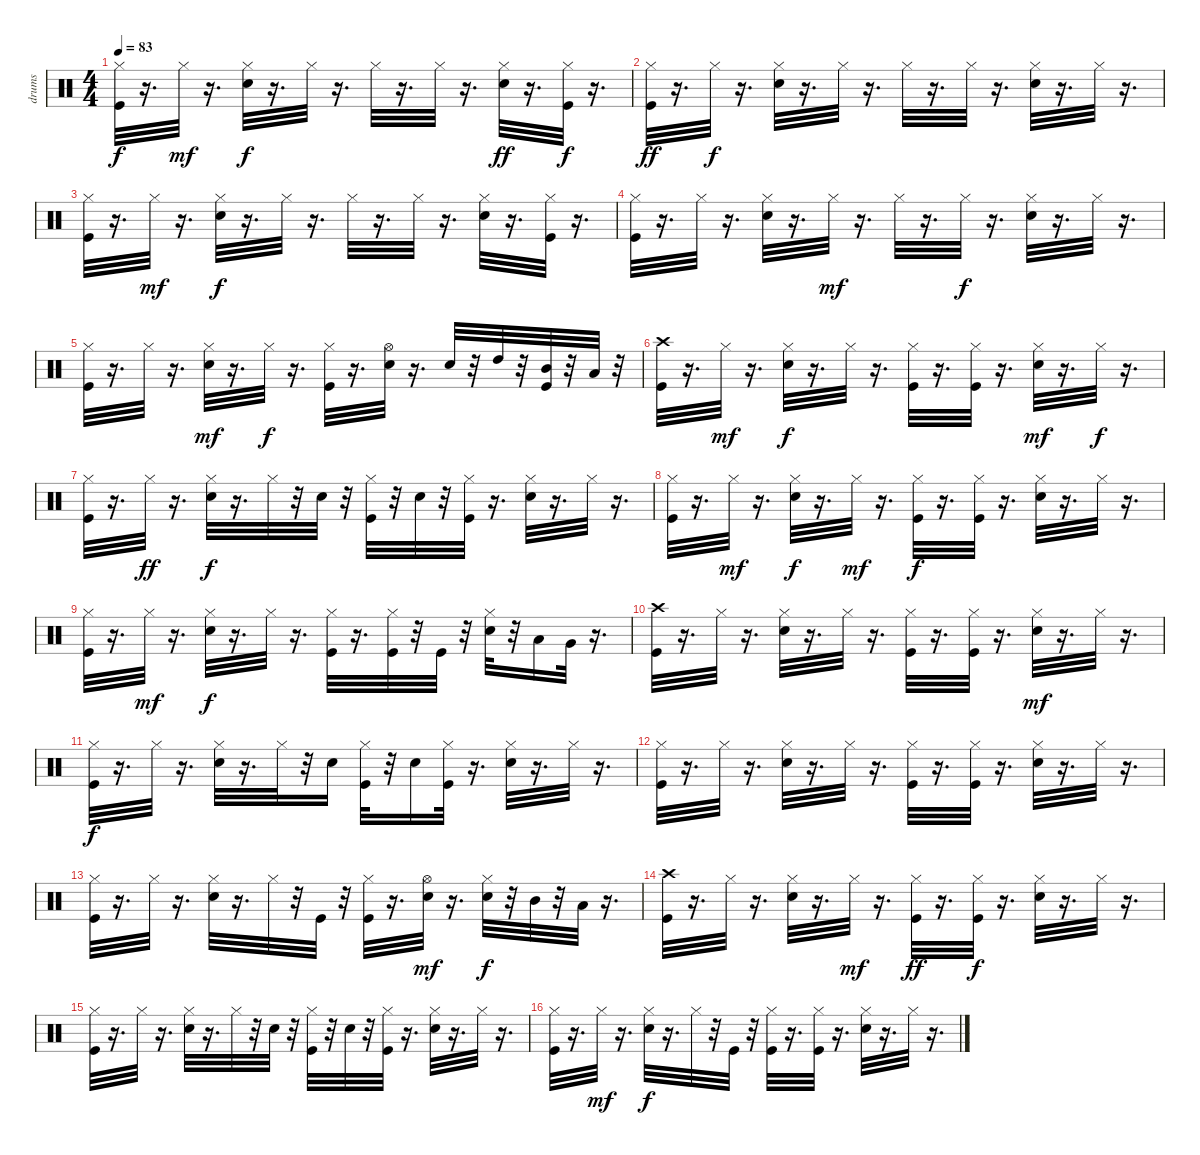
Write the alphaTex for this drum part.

\track ("drums" "drums") {instrument percussion}
\staff {score}
\articulation defaults
\ts (4 4)
\tempo 83
\clef neutral
\ks c
("Hi-Hat (closed)" "Kick (hit)").32{dy f} r.16{d} "Hi-Hat (closed)".32{dy mf} r.16{d} ("Hi-Hat (closed)" "Electric Snare (hit)").32{dy f} r.16{d} "Hi-Hat (closed)".32 r.16{d} "Hi-Hat (closed)".32 r.16{d} "Hi-Hat (closed)".32 r.16{d} ("Hi-Hat (closed)" "Electric Snare (hit)").32{dy ff} r.16{d} ("Kick (hit)" "Hi-Hat (closed)").32{dy f} r.16{d} |
("Hi-Hat (closed)" "Kick (hit)").32{dy ff} r.16{d} "Hi-Hat (closed)".32{dy f} r.16{d} ("Hi-Hat (closed)" "Electric Snare (hit)").32 r.16{d} "Hi-Hat (closed)".32 r.16{d} "Hi-Hat (closed)".32 r.16{d} "Hi-Hat (closed)".32 r.16{d} ("Hi-Hat (closed)" "Electric Snare (hit)").32 r.16{d} "Hi-Hat (closed)".32 r.16{d} |
("Hi-Hat (closed)" "Kick (hit)").32 r.16{d} "Hi-Hat (closed)".32{dy mf} r.16{d} ("Electric Snare (hit)" "Hi-Hat (closed)").32{dy f} r.16{d} "Hi-Hat (closed)".32 r.16{d} "Hi-Hat (closed)".32 r.16{d} "Hi-Hat (closed)".32 r.16{d} ("Hi-Hat (closed)" "Electric Snare (hit)").32 r.16{d} ("Hi-Hat (closed)" "Kick (hit)").32 r.16{d} |
("Kick (hit)" "Hi-Hat (closed)").32 r.16{d} "Hi-Hat (closed)".32 r.16{d} ("Hi-Hat (closed)" "Electric Snare (hit)").32 r.16{d} "Hi-Hat (closed)".32{dy mf} r.16{d} "Hi-Hat (closed)".32 r.16{d} "Hi-Hat (closed)".32{dy f} r.16{d} ("Electric Snare (hit)" "Hi-Hat (closed)").32 r.16{d} "Hi-Hat (closed)".32 r.16{d} |
("Kick (hit)" "Hi-Hat (closed)").32 r.16{d} "Hi-Hat (closed)".32 r.16{d} ("Hi-Hat (closed)" "Electric Snare (hit)").32{dy mf} r.16{d} "Hi-Hat (closed)".32{dy f} r.16{d} ("Kick (hit)" "Hi-Hat (closed)").32 r.16{d} ("Hi-Hat (open)" "Electric Snare (hit)").32 r.16{d} "Electric Snare (hit)".32 r.32 "High Tom (hit)".32 r.32 ("Kick (hit)" "Mid Tom (hit)").32 r.32 "Low Tom (hit)".32 r.32 |
("Kick (hit)" "Crash high (hit)").32 r.16{d} "Hi-Hat (closed)".32{dy mf} r.16{d} ("Electric Snare (hit)" "Hi-Hat (closed)").32{dy f} r.16{d} "Hi-Hat (closed)".32 r.16{d} ("Kick (hit)" "Hi-Hat (closed)").32 r.16{d} ("Kick (hit)" "Hi-Hat (closed)").32 r.16{d} ("Hi-Hat (closed)" "Electric Snare (hit)").32{dy mf} r.16{d} "Hi-Hat (closed)".32{dy f} r.16{d} |
("Hi-Hat (closed)" "Kick (hit)").32 r.16{d} "Hi-Hat (closed)".32{dy ff} r.16{d} ("Electric Snare (hit)" "Hi-Hat (closed)").32{dy f} r.16{d} "Hi-Hat (closed)".32 r.32 "Electric Snare (hit)".32 r.32 ("Kick (hit)" "Hi-Hat (closed)").32 r.32 "Electric Snare (hit)".32 r.32 ("Kick (hit)" "Hi-Hat (closed)").32 r.16{d} ("Hi-Hat (closed)" "Electric Snare (hit)").32 r.16{d} "Hi-Hat (closed)".32 r.16{d} |
("Hi-Hat (closed)" "Kick (hit)").32 r.16{d} "Hi-Hat (closed)".32{dy mf} r.16{d} ("Hi-Hat (closed)" "Electric Snare (hit)").32{dy f} r.16{d} "Hi-Hat (closed)".32{dy mf} r.16{d} ("Kick (hit)" "Hi-Hat (closed)").32{dy f} r.16{d} ("Kick (hit)" "Hi-Hat (closed)").32 r.16{d} ("Electric Snare (hit)" "Hi-Hat (closed)").32 r.16{d} "Hi-Hat (closed)".32 r.16{d} |
("Hi-Hat (closed)" "Kick (hit)").32 r.16{d} "Hi-Hat (closed)".32{dy mf} r.16{d} ("Hi-Hat (closed)" "Electric Snare (hit)").32{dy f} r.16{d} "Hi-Hat (closed)".32 r.16{d} ("Hi-Hat (closed)" "Kick (hit)").32 r.16{d} ("Kick (hit)" "Hi-Hat (closed)").32 r.32 "Kick (hit)".32 r.32 ("Electric Snare (hit)" "Hi-Hat (closed)").32 r.32 "Low Tom (hit)".16 "Very Low Tom (hit)".32 r.16{d} |
("Kick (hit)" "Crash high (hit)").32 r.16{d} "Hi-Hat (closed)".32 r.16{d} ("Hi-Hat (closed)" "Electric Snare (hit)").32 r.16{d} "Hi-Hat (closed)".32 r.16{d} ("Kick (hit)" "Hi-Hat (closed)").32 r.16{d} ("Kick (hit)" "Hi-Hat (closed)").32 r.16{d} ("Hi-Hat (closed)" "Electric Snare (hit)").32{dy mf} r.16{d} "Hi-Hat (closed)".32 r.16{d} |
("Kick (hit)" "Hi-Hat (closed)").32{dy f} r.16{d} "Hi-Hat (closed)".32 r.16{d} ("Electric Snare (hit)" "Hi-Hat (closed)").32 r.16{d} "Hi-Hat (closed)".32 r.32 "Electric Snare (hit)".16 ("Hi-Hat (closed)" "Kick (hit)").32 r.32 "Electric Snare (hit)".16 ("Kick (hit)" "Hi-Hat (closed)").32 r.16{d} ("Electric Snare (hit)" "Hi-Hat (closed)").32 r.16{d} "Hi-Hat (closed)".32 r.16{d} |
("Hi-Hat (closed)" "Kick (hit)").32 r.16{d} "Hi-Hat (closed)".32 r.16{d} ("Electric Snare (hit)" "Hi-Hat (closed)").32 r.16{d} "Hi-Hat (closed)".32 r.16{d} ("Hi-Hat (closed)" "Kick (hit)").32 r.16{d} ("Hi-Hat (closed)" "Kick (hit)").32 r.16{d} ("Electric Snare (hit)" "Hi-Hat (closed)").32 r.16{d} "Hi-Hat (closed)".32 r.16{d} |
("Kick (hit)" "Hi-Hat (closed)").32 r.16{d} "Hi-Hat (closed)".32 r.16{d} ("Hi-Hat (closed)" "Electric Snare (hit)").32 r.16{d} "Hi-Hat (closed)".32 r.32 "Kick (hit)".32 r.32 ("Kick (hit)" "Hi-Hat (closed)").32 r.16{d} ("Electric Snare (hit)" "Hi-Hat (open)").32{dy mf} r.16{d} ("Hi-Hat (closed)" "Electric Snare (hit)").32{dy f} r.32 "Mid Tom (hit)".32 r.32 "Low Tom (hit)".32 r.16{d} |
("Kick (hit)" "Crash high (hit)").32 r.16{d} "Hi-Hat (closed)".32 r.16{d} ("Electric Snare (hit)" "Hi-Hat (closed)").32 r.16{d} "Hi-Hat (closed)".32{dy mf} r.16{d} ("Kick (hit)" "Hi-Hat (closed)").32{dy ff} r.16{d} ("Hi-Hat (closed)" "Kick (hit)").32{dy f} r.16{d} ("Electric Snare (hit)" "Hi-Hat (closed)").32 r.16{d} "Hi-Hat (closed)".32 r.16{d} |
("Kick (hit)" "Hi-Hat (closed)").32 r.16{d} "Hi-Hat (closed)".32 r.16{d} ("Hi-Hat (closed)" "Electric Snare (hit)").32 r.16{d} "Hi-Hat (closed)".32 r.32 "Electric Snare (hit)".32 r.32 ("Hi-Hat (closed)" "Kick (hit)").32 r.32 "Electric Snare (hit)".32 r.32 ("Kick (hit)" "Hi-Hat (closed)").32 r.16{d} ("Electric Snare (hit)" "Hi-Hat (closed)").32 r.16{d} "Hi-Hat (closed)".32 r.16{d} |
("Kick (hit)" "Hi-Hat (closed)").32 r.16{d} "Hi-Hat (closed)".32{dy mf} r.16{d} ("Hi-Hat (closed)" "Electric Snare (hit)").32{dy f} r.16{d} "Hi-Hat (closed)".32 r.32 "Kick (hit)".32 r.32 ("Hi-Hat (closed)" "Kick (hit)").32 r.16{d} ("Hi-Hat (closed)" "Kick (hit)").32 r.16{d} ("Hi-Hat (closed)" "Electric Snare (hit)").32 r.16{d} "Hi-Hat (closed)".32 r.16{d}
